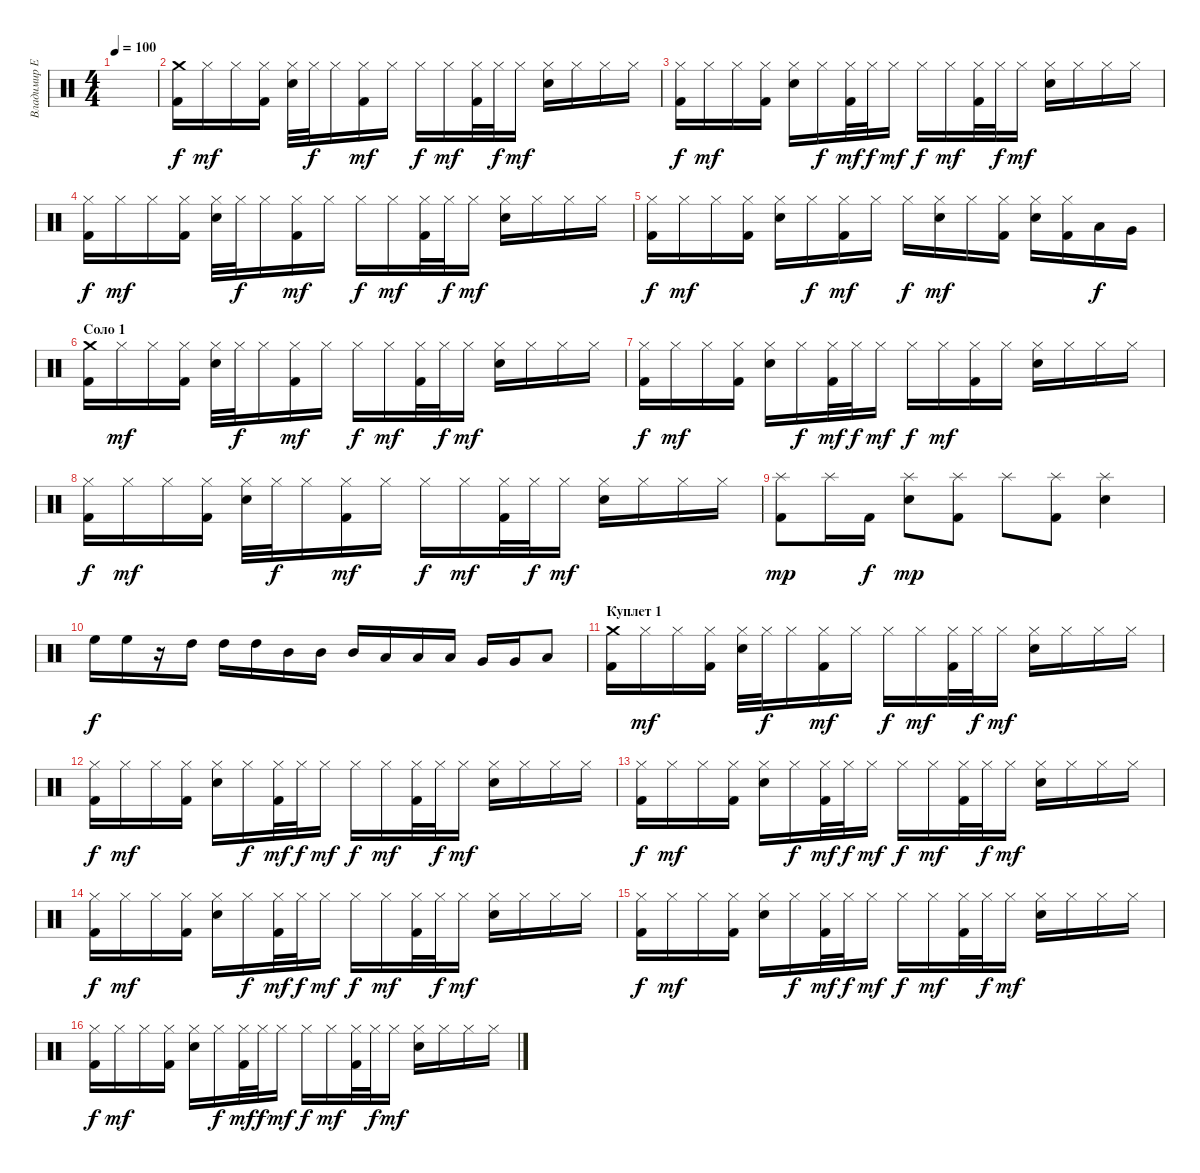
\track ("Владимир Ермаков" "Владимир Е") {instrument percussion}
\staff {score}
\articulation defaults
\ts (4 4)
\tempo 100
\clef neutral
\ks c
|
("Kick (hit) 2" "Crash medium (hit)").16 "Hi-Hat (closed)".16{dy mf} "Hi-Hat (closed)".16 ("Kick (hit) 2" "Hi-Hat (closed)").16 ("Electric Snare (hit)" "Hi-Hat (closed)").32 "Hi-Hat (closed)".32{dy f} "Hi-Hat (closed)".16 ("Kick (hit) 2" "Hi-Hat (closed)").16{dy mf} "Hi-Hat (closed)".16 "Hi-Hat (closed)".16{dy f} "Hi-Hat (closed)".16{dy mf} ("Kick (hit) 2" "Hi-Hat (closed)").32 "Hi-Hat (closed)".32{dy f} "Hi-Hat (closed)".16{dy mf} ("Electric Snare (hit)" "Hi-Hat (closed)").16 "Hi-Hat (closed)".16 "Hi-Hat (closed)".16 "Hi-Hat (closed)".16 |
("Kick (hit) 2" "Hi-Hat (closed)").16{dy f} "Hi-Hat (closed)".16{dy mf} "Hi-Hat (closed)".16 ("Kick (hit) 2" "Hi-Hat (closed)").16 ("Electric Snare (hit)" "Hi-Hat (closed)").16 "Hi-Hat (closed)".16{dy f} ("Kick (hit) 2" "Hi-Hat (closed)").32{dy mf} "Hi-Hat (closed)".32{dy f} "Hi-Hat (closed)".16{dy mf} "Hi-Hat (closed)".16{dy f} "Hi-Hat (closed)".16{dy mf} ("Kick (hit) 2" "Hi-Hat (closed)").32 "Hi-Hat (closed)".32{dy f} "Hi-Hat (closed)".16{dy mf} ("Electric Snare (hit)" "Hi-Hat (closed)").16 "Hi-Hat (closed)".16 "Hi-Hat (closed)".16 "Hi-Hat (closed)".16 |
("Kick (hit) 2" "Hi-Hat (closed)").16{dy f} "Hi-Hat (closed)".16{dy mf} "Hi-Hat (closed)".16 ("Kick (hit) 2" "Hi-Hat (closed)").16 ("Electric Snare (hit)" "Hi-Hat (closed)").32 "Hi-Hat (closed)".32{dy f} "Hi-Hat (closed)".16 ("Kick (hit) 2" "Hi-Hat (closed)").16{dy mf} "Hi-Hat (closed)".16 "Hi-Hat (closed)".16{dy f} "Hi-Hat (closed)".16{dy mf} ("Kick (hit) 2" "Hi-Hat (closed)").32 "Hi-Hat (closed)".32{dy f} "Hi-Hat (closed)".16{dy mf} ("Electric Snare (hit)" "Hi-Hat (closed)").16 "Hi-Hat (closed)".16 "Hi-Hat (closed)".16 "Hi-Hat (closed)".16 |
("Kick (hit) 2" "Hi-Hat (closed)").16{dy f} "Hi-Hat (closed)".16{dy mf} "Hi-Hat (closed)".16 ("Kick (hit) 2" "Hi-Hat (closed)").16 ("Electric Snare (hit)" "Hi-Hat (closed)").16 "Hi-Hat (closed)".16{dy f} ("Kick (hit) 2" "Hi-Hat (closed)").16{dy mf} "Hi-Hat (closed)".16 "Hi-Hat (closed)".16{dy f} ("Electric Snare (hit)" "Hi-Hat (closed)").16{dy mf} "Hi-Hat (closed)".16 ("Kick (hit) 2" "Hi-Hat (closed)").16 ("Electric Snare (hit)" "Hi-Hat (closed)").16 ("Kick (hit) 2" "Hi-Hat (closed)").16 "Low Tom (hit)".16{dy f} "Very Low Tom (hit)".16 |
\section ("" "Соло 1")
("Kick (hit) 2" "Crash medium (hit)").16 "Hi-Hat (closed)".16{dy mf} "Hi-Hat (closed)".16 ("Kick (hit) 2" "Hi-Hat (closed)").16 ("Electric Snare (hit)" "Hi-Hat (closed)").32 "Hi-Hat (closed)".32{dy f} "Hi-Hat (closed)".16 ("Kick (hit) 2" "Hi-Hat (closed)").16{dy mf} "Hi-Hat (closed)".16 "Hi-Hat (closed)".16{dy f} "Hi-Hat (closed)".16{dy mf} ("Kick (hit) 2" "Hi-Hat (closed)").32 "Hi-Hat (closed)".32{dy f} "Hi-Hat (closed)".16{dy mf} ("Electric Snare (hit)" "Hi-Hat (closed)").16 "Hi-Hat (closed)".16 "Hi-Hat (closed)".16 "Hi-Hat (closed)".16 |
("Kick (hit) 2" "Hi-Hat (closed)").16{dy f} "Hi-Hat (closed)".16{dy mf} "Hi-Hat (closed)".16 ("Kick (hit) 2" "Hi-Hat (closed)").16 ("Electric Snare (hit)" "Hi-Hat (closed)").16 "Hi-Hat (closed)".16{dy f} ("Kick (hit) 2" "Hi-Hat (closed)").32{dy mf} "Hi-Hat (closed)".32{dy f} "Hi-Hat (closed)".16{dy mf} "Hi-Hat (closed)".16{dy f} "Hi-Hat (closed)".16{dy mf} ("Kick (hit) 2" "Hi-Hat (closed)").16 "Hi-Hat (closed)".16 ("Electric Snare (hit)" "Hi-Hat (closed)").16 "Hi-Hat (closed)".16 "Hi-Hat (closed)".16 "Hi-Hat (closed)".16 |
("Kick (hit) 2" "Hi-Hat (closed)").16{dy f} "Hi-Hat (closed)".16{dy mf} "Hi-Hat (closed)".16 ("Kick (hit) 2" "Hi-Hat (closed)").16 ("Electric Snare (hit)" "Hi-Hat (closed)").32 "Hi-Hat (closed)".32{dy f} "Hi-Hat (closed)".16 ("Kick (hit) 2" "Hi-Hat (closed)").16{dy mf} "Hi-Hat (closed)".16 "Hi-Hat (closed)".16{dy f} "Hi-Hat (closed)".16{dy mf} ("Kick (hit) 2" "Hi-Hat (closed)").32 "Hi-Hat (closed)".32{dy f} "Hi-Hat (closed)".16{dy mf} ("Electric Snare (hit)" "Hi-Hat (closed)").16 "Hi-Hat (closed)".16 "Hi-Hat (closed)".16 "Hi-Hat (closed)".16 |
("Kick (hit) 2" "Splash (hit)").8{dy mp} "Splash (hit)".16 "Kick (hit) 2".16{dy f} ("Electric Snare (hit)" "Splash (hit)").8{dy mp} ("Kick (hit) 2" "Splash (hit)").8 "Splash (hit)".8 ("Kick (hit) 2" "Splash (hit)").8 ("Electric Snare (hit)" "Splash (hit)").4 |
"High Floor Tom (hit)".16{dy f} "High Floor Tom (hit)".16 r.16 "High Tom (hit)".16 "High Tom (hit)".16 "High Tom (hit)".16 "Mid Tom (hit)".16 "Mid Tom (hit)".16 "Mid Tom (hit)".16 "Low Tom (hit)".16 "Low Tom (hit)".16 "Low Tom (hit)".16 "Very Low Tom (hit)".16 "Very Low Tom (hit)".16 "Low Floor Tom (hit)".8 |
\section ("" "Куплет 1")
("Kick (hit) 2" "Crash medium (hit)").16 "Hi-Hat (closed)".16{dy mf} "Hi-Hat (closed)".16 ("Kick (hit) 2" "Hi-Hat (closed)").16 ("Electric Snare (hit)" "Hi-Hat (closed)").32 "Hi-Hat (closed)".32{dy f} "Hi-Hat (closed)".16 ("Kick (hit) 2" "Hi-Hat (closed)").16{dy mf} "Hi-Hat (closed)".16 "Hi-Hat (closed)".16{dy f} "Hi-Hat (closed)".16{dy mf} ("Kick (hit) 2" "Hi-Hat (closed)").32 "Hi-Hat (closed)".32{dy f} "Hi-Hat (closed)".16{dy mf} ("Electric Snare (hit)" "Hi-Hat (closed)").16 "Hi-Hat (closed)".16 "Hi-Hat (closed)".16 "Hi-Hat (closed)".16 |
("Kick (hit) 2" "Hi-Hat (closed)").16{dy f} "Hi-Hat (closed)".16{dy mf} "Hi-Hat (closed)".16 ("Kick (hit) 2" "Hi-Hat (closed)").16 ("Electric Snare (hit)" "Hi-Hat (closed)").16 "Hi-Hat (closed)".16{dy f} ("Kick (hit) 2" "Hi-Hat (closed)").32{dy mf} "Hi-Hat (closed)".32{dy f} "Hi-Hat (closed)".16{dy mf} "Hi-Hat (closed)".16{dy f} "Hi-Hat (closed)".16{dy mf} ("Kick (hit) 2" "Hi-Hat (closed)").32 "Hi-Hat (closed)".32{dy f} "Hi-Hat (closed)".16{dy mf} ("Electric Snare (hit)" "Hi-Hat (closed)").16 "Hi-Hat (closed)".16 "Hi-Hat (closed)".16 "Hi-Hat (closed)".16 |
("Kick (hit) 2" "Hi-Hat (closed)").16{dy f} "Hi-Hat (closed)".16{dy mf} "Hi-Hat (closed)".16 ("Kick (hit) 2" "Hi-Hat (closed)").16 ("Electric Snare (hit)" "Hi-Hat (closed)").16 "Hi-Hat (closed)".16{dy f} ("Kick (hit) 2" "Hi-Hat (closed)").32{dy mf} "Hi-Hat (closed)".32{dy f} "Hi-Hat (closed)".16{dy mf} "Hi-Hat (closed)".16{dy f} "Hi-Hat (closed)".16{dy mf} ("Kick (hit) 2" "Hi-Hat (closed)").32 "Hi-Hat (closed)".32{dy f} "Hi-Hat (closed)".16{dy mf} ("Electric Snare (hit)" "Hi-Hat (closed)").16 "Hi-Hat (closed)".16 "Hi-Hat (closed)".16 "Hi-Hat (closed)".16 |
("Kick (hit) 2" "Hi-Hat (closed)").16{dy f} "Hi-Hat (closed)".16{dy mf} "Hi-Hat (closed)".16 ("Kick (hit) 2" "Hi-Hat (closed)").16 ("Electric Snare (hit)" "Hi-Hat (closed)").16 "Hi-Hat (closed)".16{dy f} ("Kick (hit) 2" "Hi-Hat (closed)").32{dy mf} "Hi-Hat (closed)".32{dy f} "Hi-Hat (closed)".16{dy mf} "Hi-Hat (closed)".16{dy f} "Hi-Hat (closed)".16{dy mf} ("Kick (hit) 2" "Hi-Hat (closed)").32 "Hi-Hat (closed)".32{dy f} "Hi-Hat (closed)".16{dy mf} ("Electric Snare (hit)" "Hi-Hat (closed)").16 "Hi-Hat (closed)".16 "Hi-Hat (closed)".16 "Hi-Hat (closed)".16 |
("Kick (hit) 2" "Hi-Hat (closed)").16{dy f} "Hi-Hat (closed)".16{dy mf} "Hi-Hat (closed)".16 ("Kick (hit) 2" "Hi-Hat (closed)").16 ("Electric Snare (hit)" "Hi-Hat (closed)").16 "Hi-Hat (closed)".16{dy f} ("Kick (hit) 2" "Hi-Hat (closed)").32{dy mf} "Hi-Hat (closed)".32{dy f} "Hi-Hat (closed)".16{dy mf} "Hi-Hat (closed)".16{dy f} "Hi-Hat (closed)".16{dy mf} ("Kick (hit) 2" "Hi-Hat (closed)").32 "Hi-Hat (closed)".32{dy f} "Hi-Hat (closed)".16{dy mf} ("Electric Snare (hit)" "Hi-Hat (closed)").16 "Hi-Hat (closed)".16 "Hi-Hat (closed)".16 "Hi-Hat (closed)".16 |
("Kick (hit) 2" "Hi-Hat (closed)").16{dy f} "Hi-Hat (closed)".16{dy mf} "Hi-Hat (closed)".16 ("Kick (hit) 2" "Hi-Hat (closed)").16 ("Electric Snare (hit)" "Hi-Hat (closed)").16 "Hi-Hat (closed)".16{dy f} ("Kick (hit) 2" "Hi-Hat (closed)").32{dy mf} "Hi-Hat (closed)".32{dy f} "Hi-Hat (closed)".16{dy mf} "Hi-Hat (closed)".16{dy f} "Hi-Hat (closed)".16{dy mf} ("Kick (hit) 2" "Hi-Hat (closed)").32 "Hi-Hat (closed)".32{dy f} "Hi-Hat (closed)".16{dy mf} ("Electric Snare (hit)" "Hi-Hat (closed)").16 "Hi-Hat (closed)".16 "Hi-Hat (closed)".16 "Hi-Hat (closed)".16
